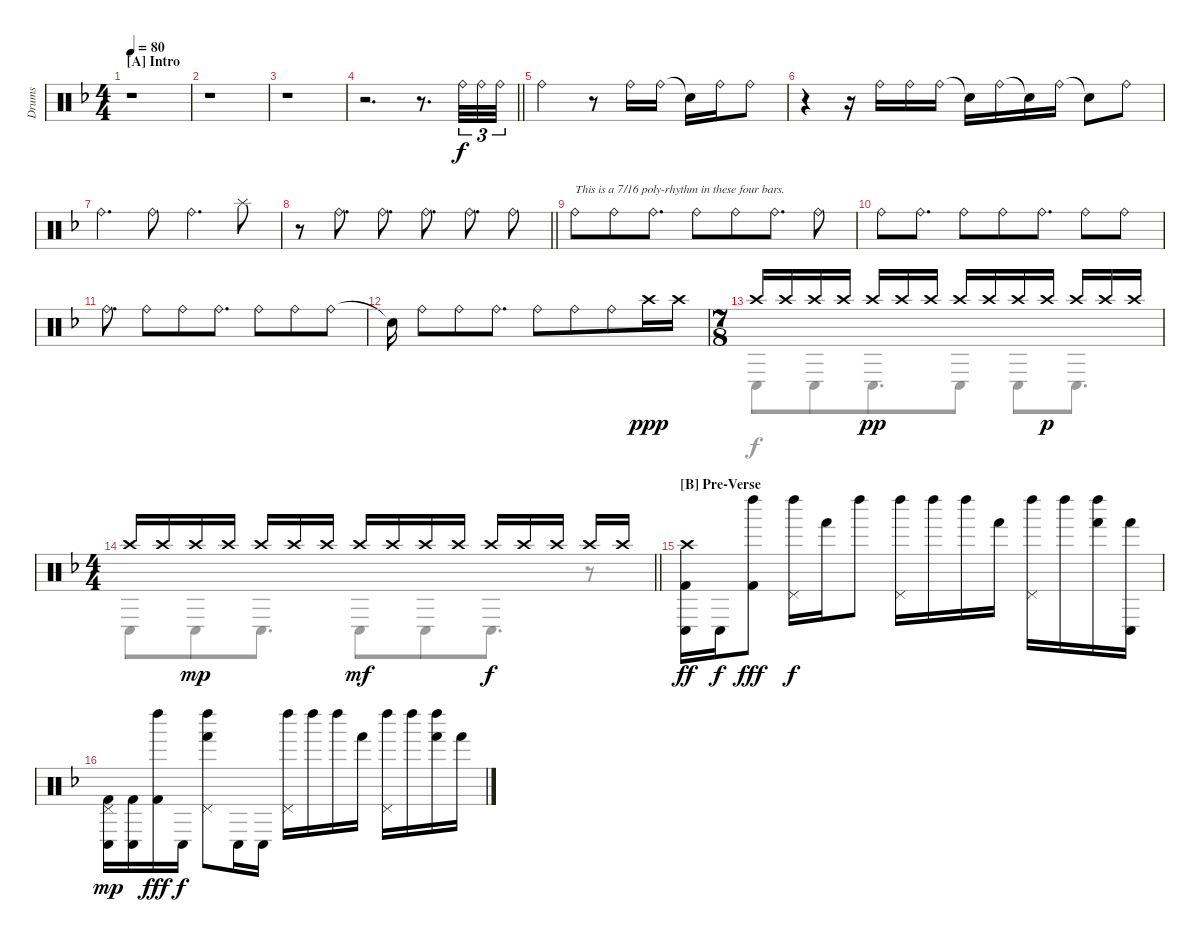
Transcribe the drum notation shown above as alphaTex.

\track ("Drums" "Drums") {instrument percussion}
\staff {score}
\articulation defaults
\voice
\ts (4 4)
\section ("" "[A] Intro")
\tempo 80
\clef neutral
\ks dminor
r.1{dy f} |
r.1 |
r.1 |
\barLineRight lightlight
r.2{d} r.8{d} "Ride (bell)".32{tu (3 2)} "Ride (bell)".32{tu (3 2)} "Ride (bell)".32{tu (3 2)} |
"Ride (bell)".2 r.8 "Ride (bell)".16 "Ride (bell)".16 "Snare (hit)"{t}.16 "Ride (bell)".16 "Ride (bell)".8 |
r.4 r.16 "Ride (bell)".16 "Ride (bell)".16 "Ride (bell)".16 "Snare (hit)"{t}.16 "Ride (bell)".16 "Snare (hit)"{t}.16 "Ride (bell)".16 "Snare (hit)"{t}.8 "Ride (bell)".8 |
"Ride (bell)".4{d} "Ride (bell)".8 "Ride (bell)".4{d} "Splash (hit)".8 |
\barLineRight lightlight
r.8 "Ride (bell)".8{d} "Ride (bell)".8{d} "Ride (bell)".8{d beam split} "Ride (bell)".8{d} "Ride (bell)".8 |
"Ride (bell)".8{txt "This is a 7/16 poly-rhythm in these four bars."} "Ride (bell)".8{beam merge} "Ride (bell)".8{d beam split} "Ride (bell)".8{beam merge} "Ride (bell)".8 "Ride (bell)".8{d beam split} "Ride (bell)".8 |
"Ride (bell)".8 "Ride (bell)".8{d} "Ride (bell)".8 "Ride (bell)".8{beam merge} "Ride (bell)".8{d} "Ride (bell)".8 "Ride (bell)".8 |
"Ride (bell)".8{d beam split} "Ride (bell)".8{beam merge} "Ride (bell)".8 "Ride (bell)".8{d} "Ride (bell)".8{beam merge} "Ride (bell)".8 "Ride (bell)".8 |
"Snare (hit)"{t}.16{beam split} "Ride (bell)".8 "Ride (bell)".8{beam merge} "Ride (bell)".8{d} "Ride (bell)".8 "Ride (bell)".8{beam merge} "Ride (bell)".8 "Crash high (hit)".16{dy ppp} "Crash high (hit)".16 |
\ts (7 8)
"Crash high (hit)".16 "Crash high (hit)".16{beam merge} "Crash high (hit)".16 "Crash high (hit)".16{beam split} "Crash high (hit)".16{dy pp} "Crash high (hit)".16{beam merge} "Crash high (hit)".16{beam split} "Crash high (hit)".16{beam merge} "Crash high (hit)".16 "Crash high (hit)".16{beam merge} "Crash high (hit)".16{dy p beam split} "Crash high (hit)".16{beam merge} "Crash high (hit)".16 "Crash high (hit)".16 |
\ts (4 4)
\barLineRight lightlight "Crash high (hit)".16 "Crash high (hit)".16{beam merge} "Crash high (hit)".16{dy mp} "Crash high (hit)".16{beam split} "Crash high (hit)".16 "Crash high (hit)".16{beam merge} "Crash high (hit)".16{beam split} "Crash high (hit)".16{dy mf beam merge} "Crash high (hit)".16 "Crash high (hit)".16{beam merge} "Crash high (hit)".16{beam split} "Crash high (hit)".16{dy f beam merge} "Crash high (hit)".16 "Crash high (hit)".16{beam split} "Crash high (hit)".16 "Crash high (hit)".16
|
\section ("" "[B] Pre-Verse")
("Crash high (hit)" "Conga low (hit)" "Kick (hit) 2").16{dy ff} "Conga low (hit)".16{dy f} ("Left Maraca (hit)" "Kick (hit) 2").8{dy fff} ("Pedal Hi-Hat (hit)" "Left Maraca (hit)").16{dy f} "Hand (hit)".16 "Left Maraca (hit)".8 ("Pedal Hi-Hat (hit)" "Left Maraca (hit)").16 "Left Maraca (hit)".16 "Left Maraca (hit)".16 "Hand (hit)".16 ("Pedal Hi-Hat (hit)" "Left Maraca (hit)").16 "Left Maraca (hit)".16 ("Left Maraca (hit)" "Hand (hit)").16 ("Conga low (hit)" "Hand (hit)").16 |
("Pedal Hi-Hat (hit)" "Conga low (hit)" "Kick (hit) 2").16{dy mp} ("Conga low (hit)" "Kick (hit) 2").16 ("Left Maraca (hit)" "Kick (hit) 2").16{dy fff} "Conga low (hit)".16{dy f} ("Pedal Hi-Hat (hit)" "Left Maraca (hit)" "Hand (hit)").8 "Conga low (hit)".16 "Conga low (hit)".16 ("Pedal Hi-Hat (hit)" "Left Maraca (hit)").16 "Left Maraca (hit)".16 "Left Maraca (hit)".16 "Hand (hit)".16 ("Pedal Hi-Hat (hit)" "Left Maraca (hit)").16 "Left Maraca (hit)".16 ("Left Maraca (hit)" "Hand (hit)").16 "Hand (hit)".16
\voice
\clef neutral
\ottava regular
\simile none
\ks dminor
|
|
|
\barLineRight lightlight
|
|
|
|
\barLineRight lightlight
|
|
|
|
|
"Conga low (hit)".8 "Conga low (hit)".8 "Conga low (hit)".8{d} "Conga low (hit)".8 "Conga low (hit)".8{beam merge} "Conga low (hit)".8{d} |
\barLineRight lightlight "Conga low (hit)".8 "Conga low (hit)".8{beam merge} "Conga low (hit)".8{d beam split} "Conga low (hit)".8{beam merge} "Conga low (hit)".8{beam merge} "Conga low (hit)".8{d}
r.8 |
|
